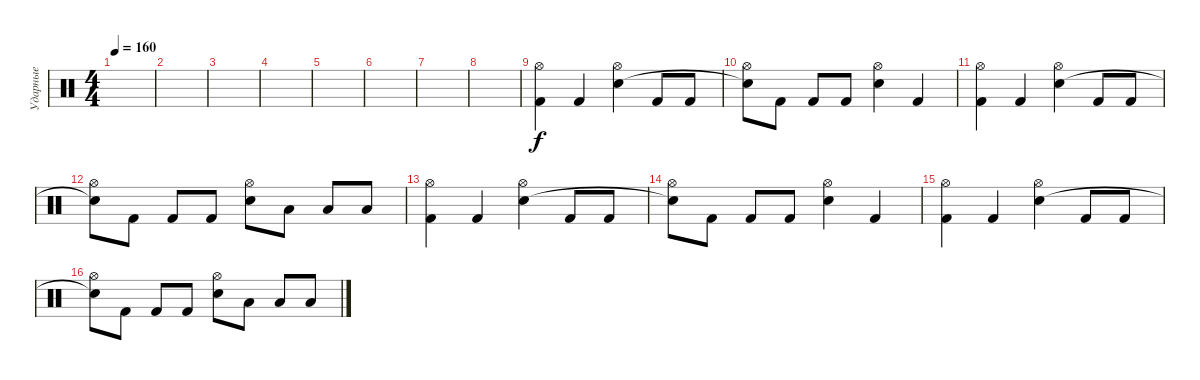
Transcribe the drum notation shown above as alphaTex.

\track ("Ударные" "Ударные") {instrument percussion}
\staff {score}
\articulation defaults
\ts (4 4)
\tempo 160
\clef neutral
\ks c
|
|
|
|
|
|
|
|
("Hi-Hat (open)" "Kick (hit) 2").4 "Kick (hit) 2".4 ("Hi-Hat (open)" "Electric Snare (hit)").4 "Kick (hit) 2".8 "Kick (hit) 2".8 |
("Hi-Hat (open)" "Snare (hit)"{t}).8 "Kick (hit) 2".8 "Kick (hit) 2".8 "Kick (hit) 2".8 ("Hi-Hat (open)" "Electric Snare (hit)").4 "Kick (hit) 2".4 |
("Hi-Hat (open)" "Kick (hit) 2").4 "Kick (hit) 2".4 ("Hi-Hat (open)" "Electric Snare (hit)").4 "Kick (hit) 2".8 "Kick (hit) 2".8 |
("Hi-Hat (open)" "Snare (hit)"{t}).8 "Kick (hit) 2".8 "Kick (hit) 2".8 "Kick (hit) 2".8 ("Hi-Hat (open)" "Electric Snare (hit)").8 "Low Tom (hit)".8 "Low Tom (hit)".8 "Low Tom (hit)".8 |
("Hi-Hat (open)" "Kick (hit) 2").4 "Kick (hit) 2".4 ("Hi-Hat (open)" "Electric Snare (hit)").4 "Kick (hit) 2".8 "Kick (hit) 2".8 |
("Hi-Hat (open)" "Snare (hit)"{t}).8 "Kick (hit) 2".8 "Kick (hit) 2".8 "Kick (hit) 2".8 ("Hi-Hat (open)" "Electric Snare (hit)").4 "Kick (hit) 2".4 |
("Hi-Hat (open)" "Kick (hit) 2").4 "Kick (hit) 2".4 ("Hi-Hat (open)" "Electric Snare (hit)").4 "Kick (hit) 2".8 "Kick (hit) 2".8 |
("Hi-Hat (open)" "Snare (hit)"{t}).8 "Kick (hit) 2".8 "Kick (hit) 2".8 "Kick (hit) 2".8 ("Hi-Hat (open)" "Electric Snare (hit)").8 "Low Tom (hit)".8 "Low Tom (hit)".8 "Low Tom (hit)".8
